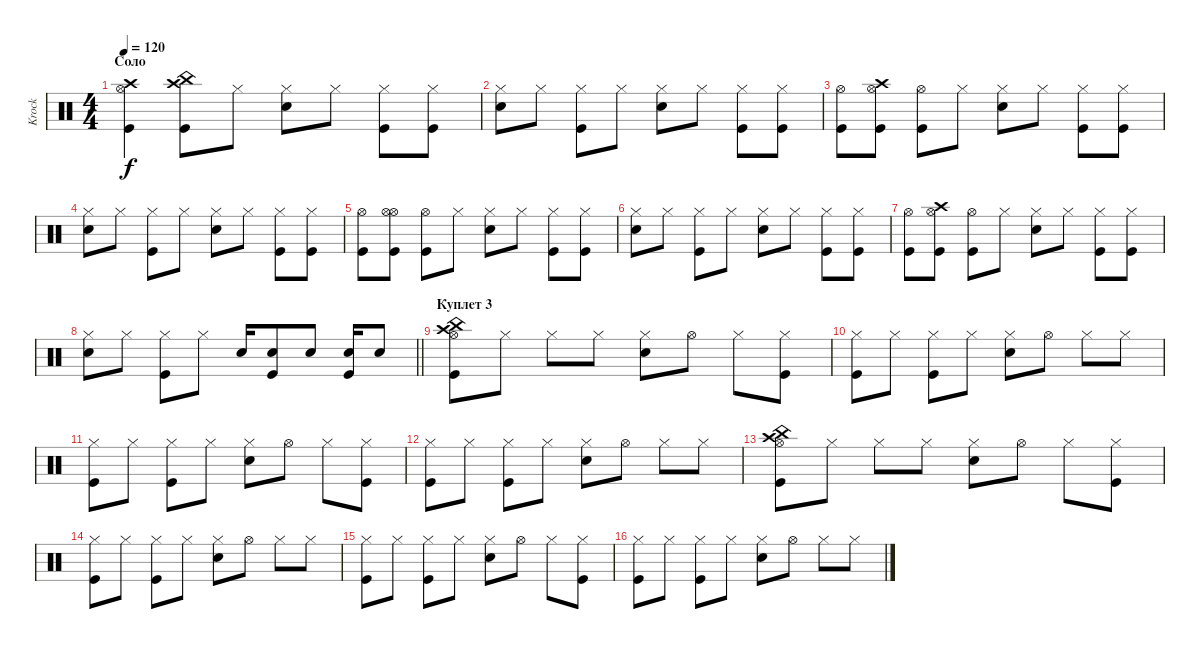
\track ("Krock" "Krock") {instrument percussion}
\staff {score}
\articulation defaults
\ts (4 4)
\section ("" "Соло")
\tempo 120
\clef neutral
\ks c
("Hi-Hat (open)" "Crash high (hit)" "Kick (hit)").4{dy f} ("China (hit)" "Crash high (hit)" "Kick (hit)").8 "Hi-Hat (closed)".8 ("Hi-Hat (closed)" "Snare (hit) 2").8 "Hi-Hat (closed)".8 ("Hi-Hat (closed)" "Kick (hit)").8 ("Hi-Hat (closed)" "Kick (hit)").8 |
("Hi-Hat (closed)" "Snare (hit) 2").8 "Hi-Hat (closed)".8 ("Hi-Hat (closed)" "Kick (hit)").8 "Hi-Hat (closed)".8 ("Hi-Hat (closed)" "Snare (hit) 2").8 "Hi-Hat (closed)".8 ("Hi-Hat (closed)" "Kick (hit)").8 ("Hi-Hat (closed)" "Kick (hit)").8 |
("Hi-Hat (open)" "Kick (hit)").8 ("Crash high (hit)" "Hi-Hat (open)" "Kick (hit)").8 ("Hi-Hat (open)" "Kick (hit)").8 "Hi-Hat (closed)".8 ("Hi-Hat (closed)" "Snare (hit) 2").8 "Hi-Hat (closed)".8 ("Hi-Hat (closed)" "Kick (hit)").8 ("Hi-Hat (closed)" "Kick (hit)").8 |
("Hi-Hat (closed)" "Snare (hit) 2").8 "Hi-Hat (closed)".8 ("Hi-Hat (closed)" "Kick (hit)").8 "Hi-Hat (closed)".8 ("Hi-Hat (closed)" "Snare (hit) 2").8 "Hi-Hat (closed)".8 ("Hi-Hat (closed)" "Kick (hit)").8 ("Hi-Hat (closed)" "Kick (hit)").8 |
("Hi-Hat (open)" "Kick (hit)").8 ("Hi-Hat (open)" "Hi-Hat (open)" "Kick (hit)").8 ("Hi-Hat (open)" "Kick (hit)").8 "Hi-Hat (closed)".8 ("Hi-Hat (closed)" "Snare (hit) 2").8 "Hi-Hat (closed)".8 ("Hi-Hat (closed)" "Kick (hit)").8 ("Hi-Hat (closed)" "Kick (hit)").8 |
("Hi-Hat (closed)" "Snare (hit) 2").8 "Hi-Hat (closed)".8 ("Hi-Hat (closed)" "Kick (hit)").8 "Hi-Hat (closed)".8 ("Hi-Hat (closed)" "Snare (hit) 2").8 "Hi-Hat (closed)".8 ("Hi-Hat (closed)" "Kick (hit)").8 ("Hi-Hat (closed)" "Kick (hit)").8 |
("Hi-Hat (open)" "Kick (hit)").8 ("Crash high (hit)" "Hi-Hat (open)" "Kick (hit)").8 ("Hi-Hat (open)" "Kick (hit)").8 "Hi-Hat (closed)".8 ("Hi-Hat (closed)" "Snare (hit) 2").8 "Hi-Hat (closed)".8 ("Hi-Hat (closed)" "Kick (hit)").8 ("Hi-Hat (closed)" "Kick (hit)").8 |
\barLineRight lightlight
("Hi-Hat (closed)" "Snare (hit) 2").8 "Hi-Hat (closed)".8 ("Hi-Hat (closed)" "Kick (hit)").8 "Hi-Hat (closed)".8 "Snare (hit) 2".16 ("Snare (hit) 2" "Kick (hit)").8 "Snare (hit) 2".8 ("Snare (hit) 2" "Kick (hit)").16 "Snare (hit) 2".8 |
\section ("" "Куплет 3")
("China (hit)" "Hi-Hat (open)" "Crash high (hit)" "Kick (hit)").8 "Hi-Hat (closed)".8 "Hi-Hat (closed)".8 "Hi-Hat (closed)".8 ("Hi-Hat (closed)" "Snare (hit) 2").8 "Hi-Hat (open)".8 "Hi-Hat (closed)".8 ("Hi-Hat (closed)" "Kick (hit)").8 |
("Hi-Hat (closed)" "Kick (hit)").8 "Hi-Hat (closed)".8 ("Hi-Hat (closed)" "Kick (hit)").8 "Hi-Hat (closed)".8 ("Hi-Hat (closed)" "Snare (hit) 2").8 "Hi-Hat (open)".8 "Hi-Hat (closed)".8 "Hi-Hat (closed)".8 |
("Hi-Hat (closed)" "Kick (hit)").8 "Hi-Hat (closed)".8 ("Hi-Hat (closed)" "Kick (hit)").8 "Hi-Hat (closed)".8 ("Hi-Hat (closed)" "Snare (hit) 2").8 "Hi-Hat (open)".8 "Hi-Hat (closed)".8 ("Hi-Hat (closed)" "Kick (hit)").8 |
("Hi-Hat (closed)" "Kick (hit)").8 "Hi-Hat (closed)".8 ("Hi-Hat (closed)" "Kick (hit)").8 "Hi-Hat (closed)".8 ("Hi-Hat (closed)" "Snare (hit) 2").8 "Hi-Hat (open)".8 "Hi-Hat (closed)".8 "Hi-Hat (closed)".8 |
("China (hit)" "Hi-Hat (open)" "Crash high (hit)" "Kick (hit)").8 "Hi-Hat (closed)".8 "Hi-Hat (closed)".8 "Hi-Hat (closed)".8 ("Hi-Hat (closed)" "Snare (hit) 2").8 "Hi-Hat (open)".8 "Hi-Hat (closed)".8 ("Hi-Hat (closed)" "Kick (hit)").8 |
("Hi-Hat (closed)" "Kick (hit)").8 "Hi-Hat (closed)".8 ("Hi-Hat (closed)" "Kick (hit)").8 "Hi-Hat (closed)".8 ("Hi-Hat (closed)" "Snare (hit) 2").8 "Hi-Hat (open)".8 "Hi-Hat (closed)".8 "Hi-Hat (closed)".8 |
("Hi-Hat (closed)" "Kick (hit)").8 "Hi-Hat (closed)".8 ("Hi-Hat (closed)" "Kick (hit)").8 "Hi-Hat (closed)".8 ("Hi-Hat (closed)" "Snare (hit) 2").8 "Hi-Hat (open)".8 "Hi-Hat (closed)".8 ("Hi-Hat (closed)" "Kick (hit)").8 |
("Hi-Hat (closed)" "Kick (hit)").8 "Hi-Hat (closed)".8 ("Hi-Hat (closed)" "Kick (hit)").8 "Hi-Hat (closed)".8 ("Hi-Hat (closed)" "Snare (hit) 2").8 "Hi-Hat (open)".8 "Hi-Hat (closed)".8 "Hi-Hat (closed)".8
